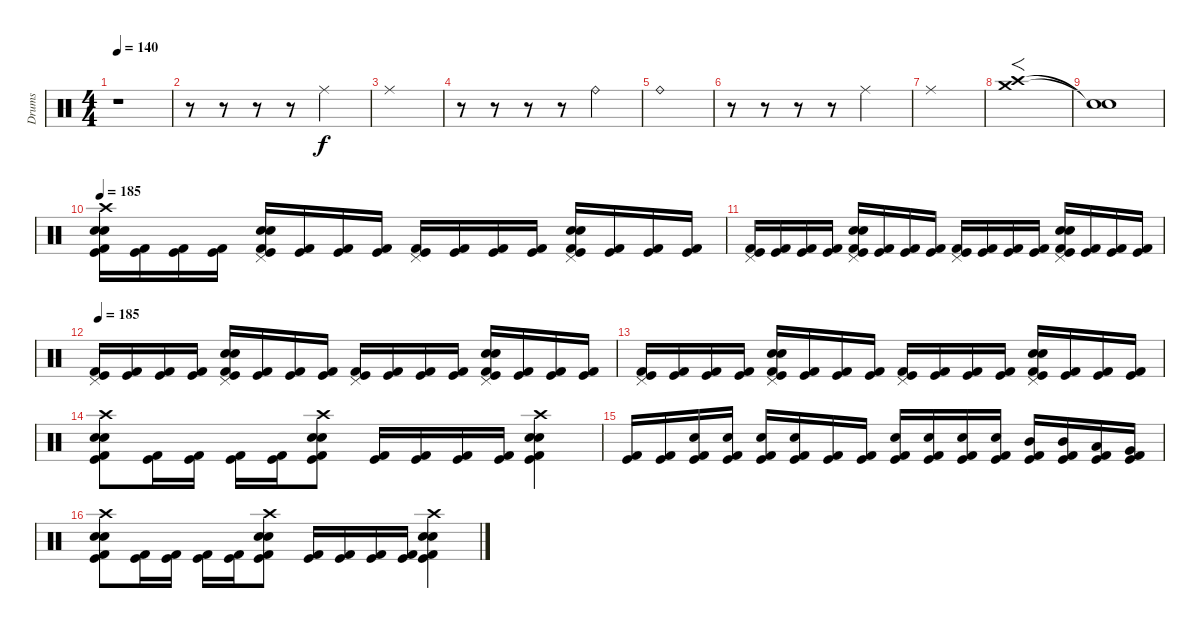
\track ("Drums" "Drums") {instrument percussion}
\staff {score}
\articulation defaults
\ts (4 4)
\tempo 140
\clef neutral
\ks c
r.1{dy f} |
r.8 r.8 r.8 r.8 "Ride (middle)".2 |
"Ride (middle)".1 |
r.8 r.8 r.8 r.8 "Ride (bell)".2 |
"Ride (bell)".1 |
r.8 r.8 r.8 r.8 "Ride (middle)".2 |
"Ride (middle)".1 |
("Crash medium (hit)" "Crash high (hit)").1{f} |
("Snare (hit)"{t} "Snare (hit)"{t}).1 |
\tempo 180
\tempo 185
("Crash high (hit)" "Electric Snare (hit)" "Snare (hit) 2" "Kick (hit) 2" "Kick (hit)").16 ("Kick (hit) 2" "Kick (hit)").16 ("Kick (hit) 2" "Kick (hit)").16 ("Kick (hit) 2" "Kick (hit)").16 ("Pedal Hi-Hat (hit)" "Electric Snare (hit)" "Snare (hit) 2" "Kick (hit) 2" "Kick (hit)").16 ("Kick (hit) 2" "Kick (hit)").16 ("Kick (hit) 2" "Kick (hit)").16 ("Kick (hit) 2" "Kick (hit)").16 ("Pedal Hi-Hat (hit)" "Kick (hit) 2" "Kick (hit)").16 ("Kick (hit) 2" "Kick (hit)").16 ("Kick (hit) 2" "Kick (hit)").16 ("Kick (hit) 2" "Kick (hit)").16 ("Pedal Hi-Hat (hit)" "Electric Snare (hit)" "Snare (hit) 2" "Kick (hit) 2" "Kick (hit)").16 ("Kick (hit) 2" "Kick (hit)").16 ("Kick (hit) 2" "Kick (hit)").16 ("Kick (hit) 2" "Kick (hit)").16 |
("Pedal Hi-Hat (hit)" "Kick (hit) 2" "Kick (hit)").16 ("Kick (hit) 2" "Kick (hit)").16 ("Kick (hit) 2" "Kick (hit)").16 ("Kick (hit) 2" "Kick (hit)").16 ("Pedal Hi-Hat (hit)" "Electric Snare (hit)" "Snare (hit) 2" "Kick (hit) 2" "Kick (hit)").16 ("Kick (hit) 2" "Kick (hit)").16 ("Kick (hit) 2" "Kick (hit)").16 ("Kick (hit) 2" "Kick (hit)").16 ("Pedal Hi-Hat (hit)" "Kick (hit) 2" "Kick (hit)").16 ("Kick (hit) 2" "Kick (hit)").16 ("Kick (hit) 2" "Kick (hit)").16 ("Kick (hit) 2" "Kick (hit)").16 ("Pedal Hi-Hat (hit)" "Electric Snare (hit)" "Snare (hit) 2" "Kick (hit) 2" "Kick (hit)").16 ("Kick (hit) 2" "Kick (hit)").16 ("Kick (hit) 2" "Kick (hit)").16 ("Kick (hit) 2" "Kick (hit)").16 |
\tempo 185
("Pedal Hi-Hat (hit)" "Kick (hit) 2" "Kick (hit)").16 ("Kick (hit) 2" "Kick (hit)").16 ("Kick (hit) 2" "Kick (hit)").16 ("Kick (hit) 2" "Kick (hit)").16 ("Pedal Hi-Hat (hit)" "Electric Snare (hit)" "Snare (hit) 2" "Kick (hit) 2" "Kick (hit)").16 ("Kick (hit) 2" "Kick (hit)").16 ("Kick (hit) 2" "Kick (hit)").16 ("Kick (hit) 2" "Kick (hit)").16 ("Pedal Hi-Hat (hit)" "Kick (hit) 2" "Kick (hit)").16 ("Kick (hit) 2" "Kick (hit)").16 ("Kick (hit) 2" "Kick (hit)").16 ("Kick (hit) 2" "Kick (hit)").16 ("Pedal Hi-Hat (hit)" "Electric Snare (hit)" "Snare (hit) 2" "Kick (hit) 2" "Kick (hit)").16 ("Kick (hit) 2" "Kick (hit)").16 ("Kick (hit) 2" "Kick (hit)").16 ("Kick (hit) 2" "Kick (hit)").16 |
("Pedal Hi-Hat (hit)" "Kick (hit) 2" "Kick (hit)").16 ("Kick (hit) 2" "Kick (hit)").16 ("Kick (hit) 2" "Kick (hit)").16 ("Kick (hit) 2" "Kick (hit)").16 ("Pedal Hi-Hat (hit)" "Electric Snare (hit)" "Snare (hit) 2" "Kick (hit) 2" "Kick (hit)").16 ("Kick (hit) 2" "Kick (hit)").16 ("Kick (hit) 2" "Kick (hit)").16 ("Kick (hit) 2" "Kick (hit)").16 ("Pedal Hi-Hat (hit)" "Kick (hit) 2" "Kick (hit)").16 ("Kick (hit) 2" "Kick (hit)").16 ("Kick (hit) 2" "Kick (hit)").16 ("Kick (hit) 2" "Kick (hit)").16 ("Pedal Hi-Hat (hit)" "Electric Snare (hit)" "Snare (hit) 2" "Kick (hit) 2" "Kick (hit)").16 ("Kick (hit) 2" "Kick (hit)").16 ("Kick (hit) 2" "Kick (hit)").16 ("Kick (hit) 2" "Kick (hit)").16 |
("Crash high (hit)" "Electric Snare (hit)" "Snare (hit) 2" "Kick (hit) 2" "Kick (hit)").8 ("Kick (hit) 2" "Kick (hit)").16 ("Kick (hit) 2" "Kick (hit)").16 ("Kick (hit) 2" "Kick (hit)").16 ("Kick (hit) 2" "Kick (hit)").16 ("Crash high (hit)" "Electric Snare (hit)" "Snare (hit) 2" "Kick (hit) 2" "Kick (hit)").8 ("Kick (hit) 2" "Kick (hit)").16 ("Kick (hit) 2" "Kick (hit)").16 ("Kick (hit) 2" "Kick (hit)").16 ("Kick (hit) 2" "Kick (hit)").16 ("Crash high (hit)" "Electric Snare (hit)" "Snare (hit) 2" "Kick (hit) 2" "Kick (hit)").4 |
("Kick (hit) 2" "Kick (hit)").16 ("Kick (hit) 2" "Kick (hit)").16 ("Electric Snare (hit)" "Kick (hit) 2" "Kick (hit)").16 ("Electric Snare (hit)" "Kick (hit) 2" "Kick (hit)").16 ("Electric Snare (hit)" "Kick (hit) 2" "Kick (hit)").16 ("Electric Snare (hit)" "Kick (hit) 2" "Kick (hit)").16 ("Kick (hit) 2" "Kick (hit)").16 ("Kick (hit) 2" "Kick (hit)").16 ("Electric Snare (hit)" "Kick (hit) 2" "Kick (hit)").16 ("Electric Snare (hit)" "Kick (hit) 2" "Kick (hit)").16 ("Electric Snare (hit)" "Kick (hit) 2" "Kick (hit)").16 ("Electric Snare (hit)" "Kick (hit) 2" "Kick (hit)").16 ("Mid Tom (hit)" "Kick (hit) 2" "Kick (hit)").16 ("Mid Tom (hit)" "Kick (hit) 2" "Kick (hit)").16 ("Low Tom (hit)" "Kick (hit) 2" "Kick (hit)").16 ("Very Low Tom (hit)" "Kick (hit) 2" "Kick (hit)").16 |
("Crash high (hit)" "Electric Snare (hit)" "Snare (hit) 2" "Kick (hit) 2" "Kick (hit)").8 ("Kick (hit) 2" "Kick (hit)").16 ("Kick (hit) 2" "Kick (hit)").16 ("Kick (hit) 2" "Kick (hit)").16 ("Kick (hit) 2" "Kick (hit)").16 ("Crash high (hit)" "Electric Snare (hit)" "Snare (hit) 2" "Kick (hit) 2" "Kick (hit)").8 ("Kick (hit) 2" "Kick (hit)").16 ("Kick (hit) 2" "Kick (hit)").16 ("Kick (hit) 2" "Kick (hit)").16 ("Kick (hit) 2" "Kick (hit)").16 ("Crash high (hit)" "Electric Snare (hit)" "Snare (hit) 2" "Kick (hit) 2" "Kick (hit)").4
